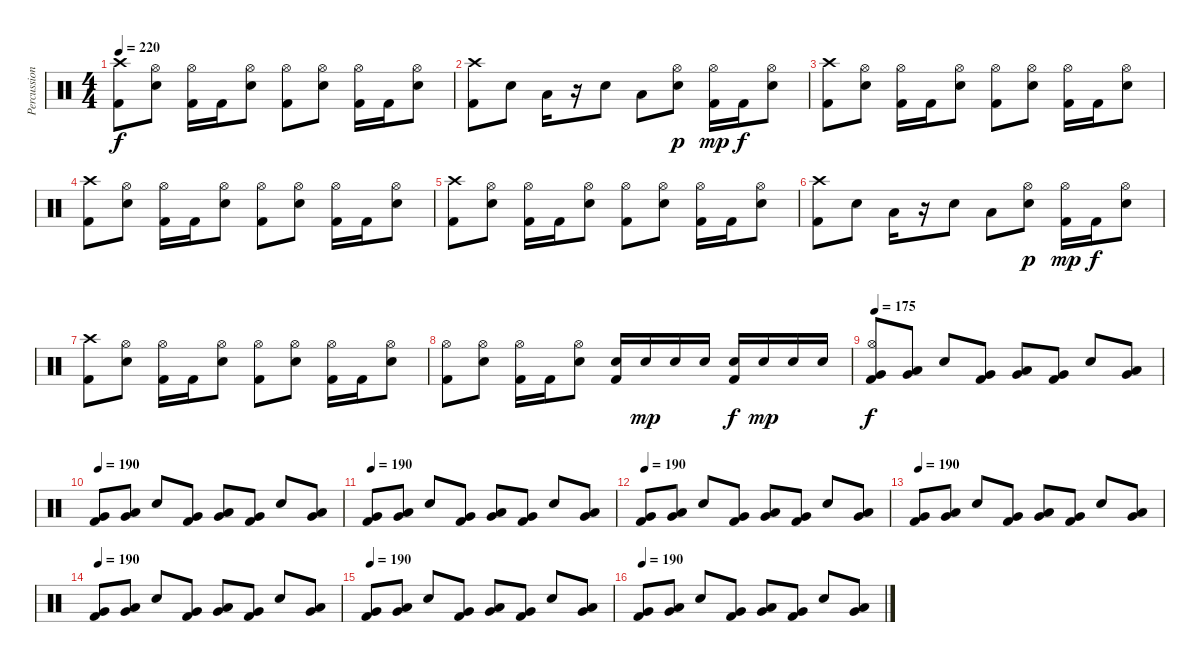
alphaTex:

\track ("Percussions" "Percussion") {instrument percussion}
\staff {score}
\articulation defaults
\ts (4 4)
\tempo 220
\clef neutral
\ks c
("Crash high (hit)" "Kick (hit) 2").8{dy f} ("Hi-Hat (open)" "Snare (hit) 2").8 ("Hi-Hat (open)" "Kick (hit) 2").16 "Kick (hit) 2".16 ("Hi-Hat (open)" "Snare (hit) 2").8 ("Hi-Hat (open)" "Kick (hit) 2").8 ("Hi-Hat (open)" "Snare (hit) 2").8 ("Hi-Hat (open)" "Kick (hit) 2").16 "Kick (hit) 2".16 ("Hi-Hat (open)" "Snare (hit) 2").8 |
("Crash high (hit)" "Kick (hit) 2").8 "Snare (hit) 2".8 "Low Tom (hit)".16 r.16 "Snare (hit) 2".8 "Low Tom (hit)".8 ("Hi-Hat (open)" "Snare (hit) 2").8{dy p} ("Hi-Hat (open)" "Kick (hit) 2").16{dy mp} "Kick (hit) 2".16{dy f} ("Hi-Hat (open)" "Snare (hit) 2").8 |
("Crash high (hit)" "Kick (hit) 2").8 ("Hi-Hat (open)" "Snare (hit) 2").8 ("Hi-Hat (open)" "Kick (hit) 2").16 "Kick (hit) 2".16 ("Hi-Hat (open)" "Snare (hit) 2").8 ("Hi-Hat (open)" "Kick (hit) 2").8 ("Hi-Hat (open)" "Snare (hit) 2").8 ("Hi-Hat (open)" "Kick (hit) 2").16 "Kick (hit) 2".16 ("Hi-Hat (open)" "Snare (hit) 2").8 |
("Crash high (hit)" "Kick (hit) 2").8 ("Hi-Hat (open)" "Snare (hit) 2").8 ("Hi-Hat (open)" "Kick (hit) 2").16 "Kick (hit) 2".16 ("Hi-Hat (open)" "Snare (hit) 2").8 ("Hi-Hat (open)" "Kick (hit) 2").8 ("Hi-Hat (open)" "Snare (hit) 2").8 ("Hi-Hat (open)" "Kick (hit) 2").16 "Kick (hit) 2".16 ("Hi-Hat (open)" "Snare (hit) 2").8 |
("Crash high (hit)" "Kick (hit) 2").8 ("Hi-Hat (open)" "Snare (hit) 2").8 ("Hi-Hat (open)" "Kick (hit) 2").16 "Kick (hit) 2".16 ("Hi-Hat (open)" "Snare (hit) 2").8 ("Hi-Hat (open)" "Kick (hit) 2").8 ("Hi-Hat (open)" "Snare (hit) 2").8 ("Hi-Hat (open)" "Kick (hit) 2").16 "Kick (hit) 2".16 ("Hi-Hat (open)" "Snare (hit) 2").8 |
("Crash high (hit)" "Kick (hit) 2").8 "Snare (hit) 2".8 "Low Tom (hit)".16 r.16 "Snare (hit) 2".8 "Low Tom (hit)".8 ("Hi-Hat (open)" "Snare (hit) 2").8{dy p} ("Hi-Hat (open)" "Kick (hit) 2").16{dy mp} "Kick (hit) 2".16{dy f} ("Hi-Hat (open)" "Snare (hit) 2").8 |
("Crash high (hit)" "Kick (hit) 2").8 ("Hi-Hat (open)" "Snare (hit) 2").8 ("Hi-Hat (open)" "Kick (hit) 2").16 "Kick (hit) 2".16 ("Hi-Hat (open)" "Snare (hit) 2").8 ("Hi-Hat (open)" "Kick (hit) 2").8 ("Hi-Hat (open)" "Snare (hit) 2").8 ("Hi-Hat (open)" "Kick (hit) 2").16 "Kick (hit) 2".16 ("Hi-Hat (open)" "Snare (hit) 2").8 |
("Hi-Hat (open)" "Kick (hit) 2").8 ("Hi-Hat (open)" "Snare (hit) 2").8 ("Hi-Hat (open)" "Kick (hit) 2").16 "Kick (hit) 2".16 ("Hi-Hat (open)" "Snare (hit) 2").8 ("Snare (hit) 2" "Kick (hit) 2").16 "Snare (hit) 2".16{dy mp} "Snare (hit) 2".16 "Snare (hit) 2".16 ("Snare (hit) 2" "Kick (hit) 2").16{dy f} "Snare (hit) 2".16{dy mp} "Snare (hit) 2".16 "Snare (hit) 2".16 |
\tempo 190
\tempo 175
("Hi-Hat (open)" "Very Low Tom (hit)" "Kick (hit) 2").8{dy f} ("Very Low Tom (hit)" "Low Tom (hit)").8 "Snare (hit) 2".8 ("Very Low Tom (hit)" "Kick (hit) 2").8 ("Very Low Tom (hit)" "Low Tom (hit)").8 ("Very Low Tom (hit)" "Kick (hit) 2").8 "Snare (hit) 2".8 ("Very Low Tom (hit)" "Low Tom (hit)").8 |
\tempo 190
("Very Low Tom (hit)" "Kick (hit) 2").8 ("Very Low Tom (hit)" "Low Tom (hit)").8 "Snare (hit) 2".8 ("Very Low Tom (hit)" "Kick (hit) 2").8 ("Very Low Tom (hit)" "Low Tom (hit)").8 ("Very Low Tom (hit)" "Kick (hit) 2").8 "Snare (hit) 2".8 ("Very Low Tom (hit)" "Low Tom (hit)").8 |
\tempo 190
("Very Low Tom (hit)" "Kick (hit) 2").8 ("Very Low Tom (hit)" "Low Tom (hit)").8 "Snare (hit) 2".8 ("Very Low Tom (hit)" "Kick (hit) 2").8 ("Very Low Tom (hit)" "Low Tom (hit)").8 ("Very Low Tom (hit)" "Kick (hit) 2").8 "Snare (hit) 2".8 ("Very Low Tom (hit)" "Low Tom (hit)").8 |
\tempo 190
("Very Low Tom (hit)" "Kick (hit) 2").8 ("Very Low Tom (hit)" "Low Tom (hit)").8 "Snare (hit) 2".8 ("Very Low Tom (hit)" "Kick (hit) 2").8 ("Very Low Tom (hit)" "Low Tom (hit)").8 ("Very Low Tom (hit)" "Kick (hit) 2").8 "Snare (hit) 2".8 ("Very Low Tom (hit)" "Low Tom (hit)").8 |
\tempo 190
("Very Low Tom (hit)" "Kick (hit) 2").8 ("Very Low Tom (hit)" "Low Tom (hit)").8 "Snare (hit) 2".8 ("Very Low Tom (hit)" "Kick (hit) 2").8 ("Very Low Tom (hit)" "Low Tom (hit)").8 ("Very Low Tom (hit)" "Kick (hit) 2").8 "Snare (hit) 2".8 ("Very Low Tom (hit)" "Low Tom (hit)").8 |
\tempo 190
("Very Low Tom (hit)" "Kick (hit) 2").8 ("Very Low Tom (hit)" "Low Tom (hit)").8 "Snare (hit) 2".8 ("Very Low Tom (hit)" "Kick (hit) 2").8 ("Very Low Tom (hit)" "Low Tom (hit)").8 ("Very Low Tom (hit)" "Kick (hit) 2").8 "Snare (hit) 2".8 ("Very Low Tom (hit)" "Low Tom (hit)").8 |
\tempo 190
("Very Low Tom (hit)" "Kick (hit) 2").8 ("Very Low Tom (hit)" "Low Tom (hit)").8 "Snare (hit) 2".8 ("Very Low Tom (hit)" "Kick (hit) 2").8 ("Very Low Tom (hit)" "Low Tom (hit)").8 ("Very Low Tom (hit)" "Kick (hit) 2").8 "Snare (hit) 2".8 ("Very Low Tom (hit)" "Low Tom (hit)").8 |
\tempo 190
("Very Low Tom (hit)" "Kick (hit) 2").8 ("Very Low Tom (hit)" "Low Tom (hit)").8 "Snare (hit) 2".8 ("Very Low Tom (hit)" "Kick (hit) 2").8 ("Very Low Tom (hit)" "Low Tom (hit)").8 ("Very Low Tom (hit)" "Kick (hit) 2").8 "Snare (hit) 2".8 ("Very Low Tom (hit)" "Low Tom (hit)").8
